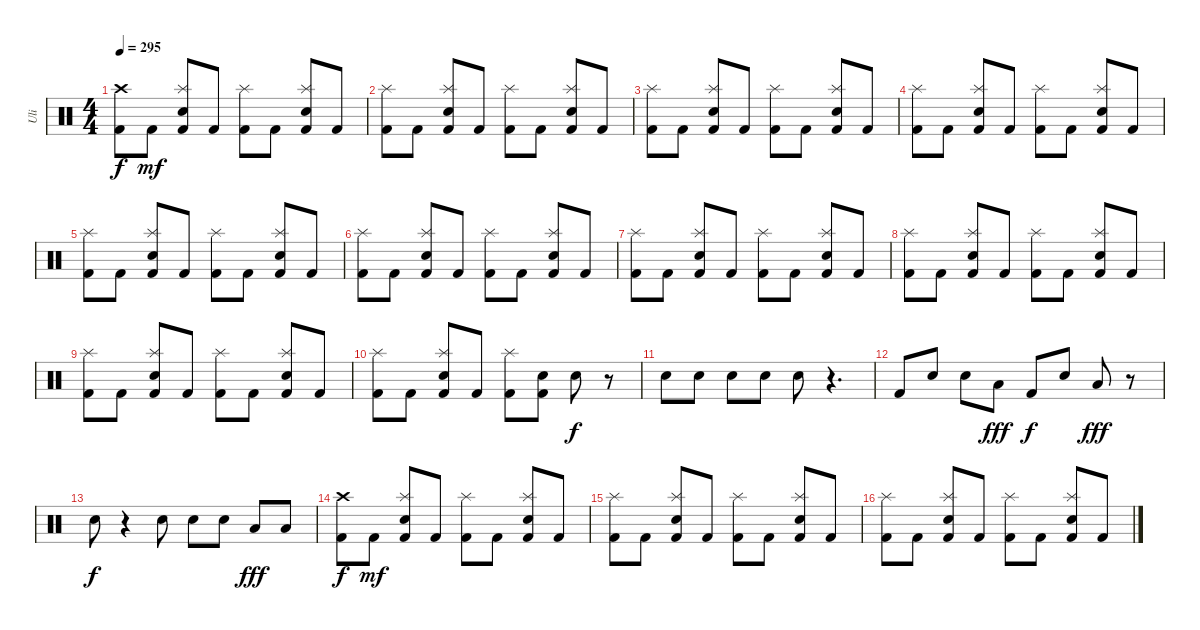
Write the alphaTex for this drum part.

\track ("Uli" "Uli") {instrument percussion}
\staff {score}
\articulation defaults
\ts (4 4)
\tempo 295
\clef neutral
\ks c
("Crash high (hit)" "Kick (hit) 2").8{dy f} "Kick (hit) 2".8{dy mf volume 16} ("Splash (hit)" "Electric Snare (hit)" "Kick (hit) 2").8 "Kick (hit) 2".8 ("Splash (hit)" "Kick (hit) 2").8 "Kick (hit) 2".8 ("Splash (hit)" "Electric Snare (hit)" "Kick (hit) 2").8 "Kick (hit) 2".8 |
("Splash (hit)" "Kick (hit) 2").8 "Kick (hit) 2".8{volume 16} ("Splash (hit)" "Electric Snare (hit)" "Kick (hit) 2").8 "Kick (hit) 2".8 ("Splash (hit)" "Kick (hit) 2").8 "Kick (hit) 2".8 ("Splash (hit)" "Electric Snare (hit)" "Kick (hit) 2").8 "Kick (hit) 2".8 |
("Splash (hit)" "Kick (hit) 2").8 "Kick (hit) 2".8{volume 16} ("Splash (hit)" "Electric Snare (hit)" "Kick (hit) 2").8 "Kick (hit) 2".8 ("Splash (hit)" "Kick (hit) 2").8 "Kick (hit) 2".8 ("Splash (hit)" "Electric Snare (hit)" "Kick (hit) 2").8 "Kick (hit) 2".8 |
("Splash (hit)" "Kick (hit) 2").8 "Kick (hit) 2".8{volume 16} ("Splash (hit)" "Electric Snare (hit)" "Kick (hit) 2").8 "Kick (hit) 2".8 ("Splash (hit)" "Kick (hit) 2").8 "Kick (hit) 2".8 ("Splash (hit)" "Electric Snare (hit)" "Kick (hit) 2").8 "Kick (hit) 2".8 |
("Splash (hit)" "Kick (hit) 2").8 "Kick (hit) 2".8{volume 16} ("Splash (hit)" "Electric Snare (hit)" "Kick (hit) 2").8 "Kick (hit) 2".8 ("Splash (hit)" "Kick (hit) 2").8 "Kick (hit) 2".8 ("Splash (hit)" "Electric Snare (hit)" "Kick (hit) 2").8 "Kick (hit) 2".8 |
("Splash (hit)" "Kick (hit) 2").8 "Kick (hit) 2".8{volume 16} ("Splash (hit)" "Electric Snare (hit)" "Kick (hit) 2").8 "Kick (hit) 2".8 ("Splash (hit)" "Kick (hit) 2").8 "Kick (hit) 2".8 ("Splash (hit)" "Electric Snare (hit)" "Kick (hit) 2").8 "Kick (hit) 2".8 |
("Splash (hit)" "Kick (hit) 2").8 "Kick (hit) 2".8{volume 16} ("Splash (hit)" "Electric Snare (hit)" "Kick (hit) 2").8 "Kick (hit) 2".8 ("Splash (hit)" "Kick (hit) 2").8 "Kick (hit) 2".8 ("Splash (hit)" "Electric Snare (hit)" "Kick (hit) 2").8 "Kick (hit) 2".8 |
("Splash (hit)" "Kick (hit) 2").8 "Kick (hit) 2".8{volume 16} ("Splash (hit)" "Electric Snare (hit)" "Kick (hit) 2").8 "Kick (hit) 2".8 ("Splash (hit)" "Kick (hit) 2").8 "Kick (hit) 2".8 ("Splash (hit)" "Electric Snare (hit)" "Kick (hit) 2").8 "Kick (hit) 2".8 |
("Splash (hit)" "Kick (hit) 2").8 "Kick (hit) 2".8{volume 16} ("Splash (hit)" "Electric Snare (hit)" "Kick (hit) 2").8 "Kick (hit) 2".8 ("Splash (hit)" "Kick (hit) 2").8 "Kick (hit) 2".8 ("Splash (hit)" "Electric Snare (hit)" "Kick (hit) 2").8 "Kick (hit) 2".8 |
("Splash (hit)" "Kick (hit) 2").8 "Kick (hit) 2".8{volume 16} ("Splash (hit)" "Electric Snare (hit)" "Kick (hit) 2").8 "Kick (hit) 2".8 ("Splash (hit)" "Kick (hit) 2").8 ("Electric Snare (hit)" "Kick (hit) 2").8 "Electric Snare (hit)".8{dy f} r.8 |
"Electric Snare (hit)".8 "Electric Snare (hit)".8 "Electric Snare (hit)".8 "Electric Snare (hit)".8 "Electric Snare (hit)".8 r.4{d} |
"Kick (hit) 2".8 "Electric Snare (hit)".8 "Electric Snare (hit)".8 "Low Tom (hit)".8{dy fff} "Kick (hit) 2".8{dy f} "Electric Snare (hit)".8 "Low Tom (hit)".8{dy fff} r.8 |
"Electric Snare (hit)".8{dy f} r.4 "Electric Snare (hit)".8 "Electric Snare (hit)".8 "Electric Snare (hit)".8 "Low Tom (hit)".8{dy fff} "Low Tom (hit)".8 |
("Crash high (hit)" "Kick (hit) 2").8{dy f} "Kick (hit) 2".8{dy mf volume 16} ("Splash (hit)" "Electric Snare (hit)" "Kick (hit) 2").8 "Kick (hit) 2".8 ("Splash (hit)" "Kick (hit) 2").8 "Kick (hit) 2".8 ("Splash (hit)" "Electric Snare (hit)" "Kick (hit) 2").8 "Kick (hit) 2".8 |
("Splash (hit)" "Kick (hit) 2").8 "Kick (hit) 2".8{volume 16} ("Splash (hit)" "Electric Snare (hit)" "Kick (hit) 2").8 "Kick (hit) 2".8 ("Splash (hit)" "Kick (hit) 2").8 "Kick (hit) 2".8 ("Splash (hit)" "Electric Snare (hit)" "Kick (hit) 2").8 "Kick (hit) 2".8 |
("Splash (hit)" "Kick (hit) 2").8 "Kick (hit) 2".8{volume 16} ("Splash (hit)" "Electric Snare (hit)" "Kick (hit) 2").8 "Kick (hit) 2".8 ("Splash (hit)" "Kick (hit) 2").8 "Kick (hit) 2".8 ("Splash (hit)" "Electric Snare (hit)" "Kick (hit) 2").8 "Kick (hit) 2".8
